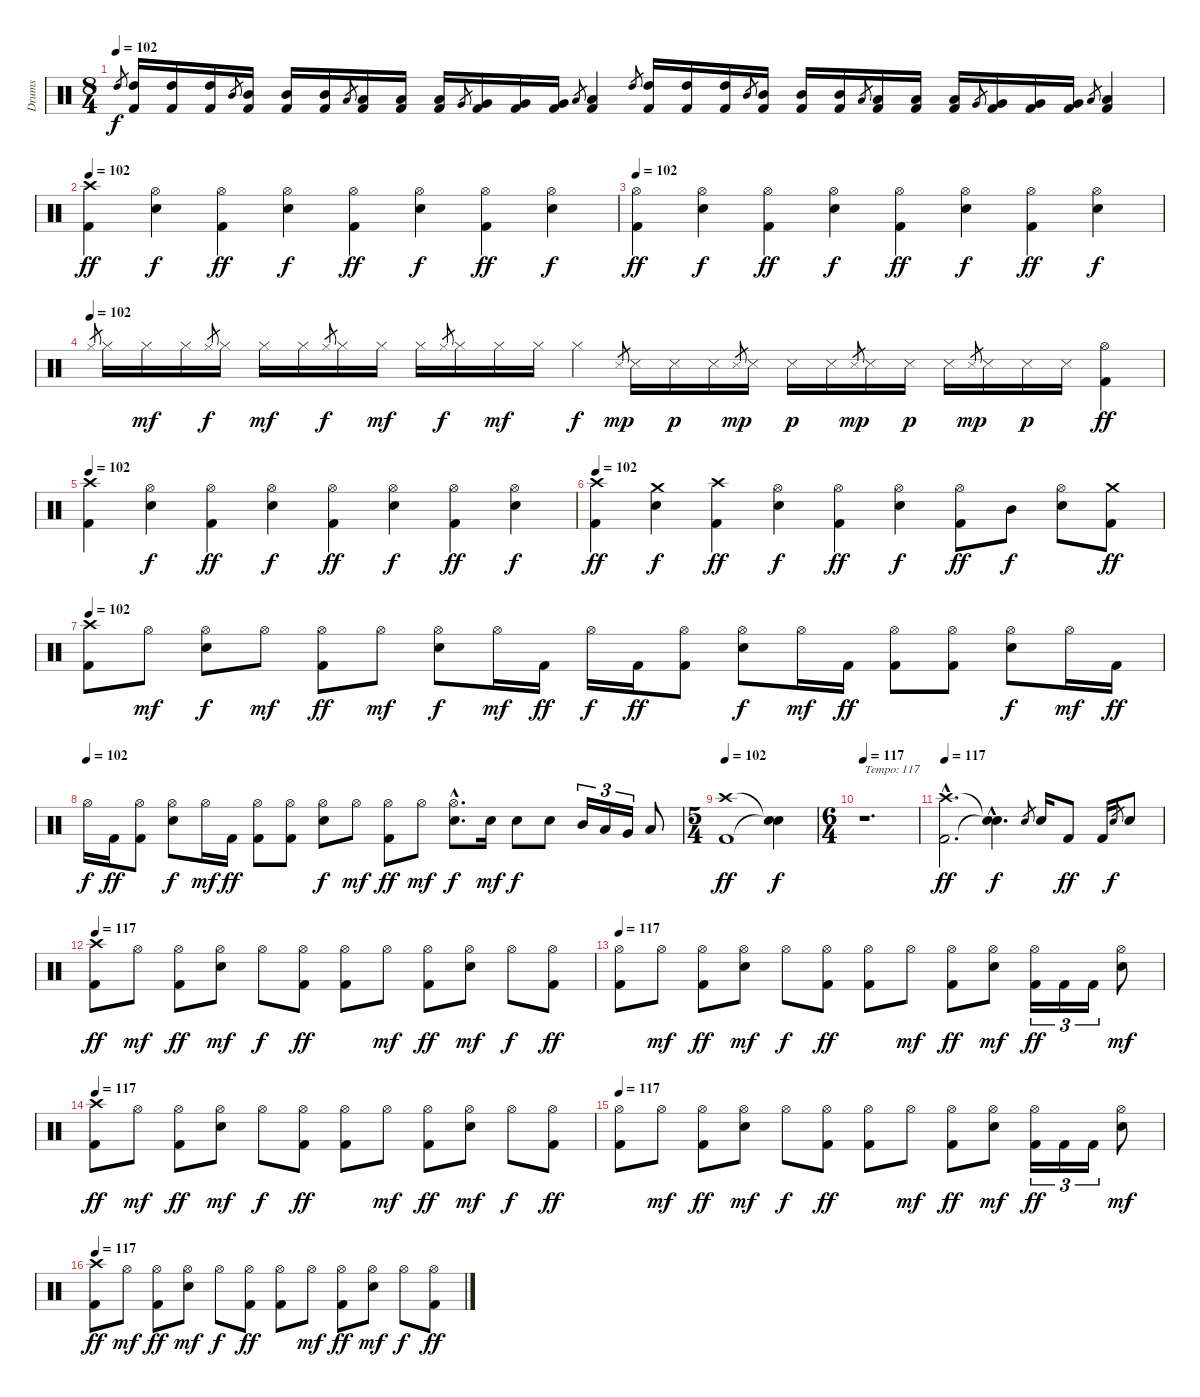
\track ("Drums" "Drums") {instrument percussion}
\staff {score}
\articulation defaults
\ts (8 4)
\tempo 102
\clef neutral
\ks c "High Tom (hit)".8{gr dy f}
("High Tom (hit)" "Kick (hit) 2").16 ("High Tom (hit)" "Kick (hit) 2").16 ("High Tom (hit)" "Kick (hit) 2").16 "Mid Tom (hit)".8{gr} ("Mid Tom (hit)" "Kick (hit) 2").16 ("Mid Tom (hit)" "Kick (hit) 2").16 ("Mid Tom (hit)" "Kick (hit) 2").16 "Low Tom (hit)".8{gr} ("Low Tom (hit)" "Kick (hit) 2").16 ("Low Tom (hit)" "Kick (hit) 2").16 ("Low Tom (hit)" "Kick (hit) 2").16 "Very Low Tom (hit)".8{gr} ("Very Low Tom (hit)" "Kick (hit) 2").16 ("Very Low Tom (hit)" "Kick (hit) 2").16 ("Very Low Tom (hit)" "Kick (hit) 2").16 "Low Floor Tom (hit)".8{gr} ("Low Floor Tom (hit)" "Kick (hit) 2").4 "High Tom (hit)".8{gr} ("High Tom (hit)" "Kick (hit) 2").16 ("High Tom (hit)" "Kick (hit) 2").16 ("High Tom (hit)" "Kick (hit) 2").16 "Mid Tom (hit)".8{gr} ("Mid Tom (hit)" "Kick (hit) 2").16 ("Mid Tom (hit)" "Kick (hit) 2").16 ("Mid Tom (hit)" "Kick (hit) 2").16 "Low Tom (hit)".8{gr} ("Low Tom (hit)" "Kick (hit) 2").16 ("Low Tom (hit)" "Kick (hit) 2").16 ("Low Tom (hit)" "Kick (hit) 2").16 "Very Low Tom (hit)".8{gr} ("Very Low Tom (hit)" "Kick (hit) 2").16 ("Very Low Tom (hit)" "Kick (hit) 2").16 ("Very Low Tom (hit)" "Kick (hit) 2").16 "Low Floor Tom (hit)".8{gr} ("Low Floor Tom (hit)" "Kick (hit) 2").4 |
\tempo 102
("Crash high (hit)" "Kick (hit) 2").4{dy ff} ("Hi-Hat (open)" "Electric Snare (hit)").4{dy f} ("Hi-Hat (open)" "Kick (hit) 2").4{dy ff} ("Hi-Hat (open)" "Electric Snare (hit)").4{dy f} ("Hi-Hat (open)" "Kick (hit) 2").4{dy ff} ("Hi-Hat (open)" "Electric Snare (hit)").4{dy f} ("Hi-Hat (open)" "Kick (hit) 2").4{dy ff} ("Hi-Hat (open)" "Electric Snare (hit)").4{dy f} |
\tempo 102
("Hi-Hat (open)" "Kick (hit) 2").4{dy ff} ("Hi-Hat (open)" "Electric Snare (hit)").4{dy f} ("Hi-Hat (open)" "Kick (hit) 2").4{dy ff} ("Hi-Hat (open)" "Electric Snare (hit)").4{dy f} ("Hi-Hat (open)" "Kick (hit) 2").4{dy ff} ("Hi-Hat (open)" "Electric Snare (hit)").4{dy f} ("Hi-Hat (open)" "Kick (hit) 2").4{dy ff} ("Hi-Hat (open)" "Electric Snare (hit)").4{dy f} |
\tempo (102)
"Hi-Hat (closed)".8{gr} "Hi-Hat (closed)".16 "Hi-Hat (closed)".16{dy mf} "Hi-Hat (closed)".16 "Hi-Hat (closed)".8{gr dy f} "Hi-Hat (closed)".16 "Hi-Hat (closed)".16{dy mf} "Hi-Hat (closed)".16 "Hi-Hat (closed)".8{gr dy f} "Hi-Hat (closed)".16 "Hi-Hat (closed)".16{dy mf} "Hi-Hat (closed)".16 "Hi-Hat (closed)".8{gr dy f} "Hi-Hat (closed)".16 "Hi-Hat (closed)".16{dy mf} "Hi-Hat (closed)".16 "Hi-Hat (closed)".4{dy f} "Snare (side stick) 3".8{gr dy mp} "Snare (side stick) 3".16 "Snare (side stick) 3".16{dy p} "Snare (side stick) 3".16 "Snare (side stick) 3".8{gr dy mp} "Snare (side stick) 3".16 "Snare (side stick) 3".16{dy p} "Snare (side stick) 3".16 "Snare (side stick) 3".8{gr dy mp} "Snare (side stick) 3".16 "Snare (side stick) 3".16{dy p} "Snare (side stick) 3".16 "Snare (side stick) 3".8{gr dy mp} "Snare (side stick) 3".16 "Snare (side stick) 3".16{dy p} "Snare (side stick) 3".16 ("Hi-Hat (open)" "Kick (hit) 2").4{dy ff} |
\tempo 102
("Crash high (hit)" "Kick (hit) 2").4 ("Hi-Hat (open)" "Electric Snare (hit)").4{dy f} ("Hi-Hat (open)" "Kick (hit) 2").4{dy ff} ("Hi-Hat (open)" "Electric Snare (hit)").4{dy f} ("Hi-Hat (open)" "Kick (hit) 2").4{dy ff} ("Hi-Hat (open)" "Electric Snare (hit)").4{dy f} ("Hi-Hat (open)" "Kick (hit) 2").4{dy ff} ("Hi-Hat (open)" "Electric Snare (hit)").4{dy f} |
\tempo 102
("Crash high (hit)" "Kick (hit) 2").4{dy ff} ("Crash medium (hit)" "Electric Snare (hit)").4{dy f} ("Crash high (hit)" "Kick (hit) 2").4{dy ff} ("Hi-Hat (open)" "Electric Snare (hit)").4{dy f} ("Hi-Hat (open)" "Kick (hit) 2").4{dy ff} ("Hi-Hat (open)" "Electric Snare (hit)").4{dy f} ("Hi-Hat (open)" "Kick (hit) 2").8{dy ff} "Mid Tom (hit)".8{dy f} ("Hi-Hat (open)" "Electric Snare (hit)").8 ("Crash medium (hit)" "Kick (hit) 2").8{dy ff} |
\tempo 102
("Crash high (hit)" "Kick (hit) 2").8 "Hi-Hat (open)".8{dy mf} ("Hi-Hat (open)" "Electric Snare (hit)").8{dy f} "Hi-Hat (open)".8{dy mf} ("Hi-Hat (open)" "Kick (hit) 2").8{dy ff} "Hi-Hat (open)".8{dy mf} ("Hi-Hat (open)" "Electric Snare (hit)").8{dy f} "Hi-Hat (open)".16{dy mf} "Kick (hit) 2".16{dy ff} "Hi-Hat (open)".16{dy f} "Kick (hit) 2".16{dy ff} ("Hi-Hat (open)" "Kick (hit) 2").8 ("Hi-Hat (open)" "Electric Snare (hit)").8{dy f} "Hi-Hat (open)".16{dy mf} "Kick (hit) 2".16{dy ff} ("Hi-Hat (open)" "Kick (hit) 2").8 ("Hi-Hat (open)" "Kick (hit) 2").8 ("Hi-Hat (open)" "Electric Snare (hit)").8{dy f} "Hi-Hat (open)".16{dy mf} "Kick (hit) 2".16{dy ff} |
\tempo (102)
"Hi-Hat (open)".16{dy f} "Kick (hit) 2".16{dy ff} ("Hi-Hat (open)" "Kick (hit) 2").8 ("Hi-Hat (open)" "Electric Snare (hit)").8{dy f} "Hi-Hat (open)".16{dy mf} "Kick (hit) 2".16{dy ff} ("Hi-Hat (open)" "Kick (hit) 2").8 ("Hi-Hat (open)" "Kick (hit) 2").8 ("Hi-Hat (open)" "Electric Snare (hit)").8{dy f} "Hi-Hat (open)".8{dy mf} ("Hi-Hat (open)" "Kick (hit) 2").8{dy ff} "Hi-Hat (open)".8{dy mf} ("Hi-Hat (open)"{hac} "Electric Snare (hit)"{hac}).8{d dy f} "Electric Snare (hit)".16{dy mf} "Electric Snare (hit)".8{dy f} "Electric Snare (hit)".8 "Mid Tom (hit)".16{tu (3 2)} "Low Tom (hit)".16{tu (3 2)} "Very Low Tom (hit)".16{tu (3 2)} "Low Floor Tom (hit)".8 |
\ts (5 4)
\tempo 102
("Crash high (hit)" "Kick (hit) 2").1{dy ff} ("Snare (hit)"{t} "Snare (hit)"{t}).4{dy f} |
\ts (6 4)
\tempo 117
r.1{d txt "Tempo: 117"} |
\tempo 117
("Crash high (hit)"{hac} "Kick (hit) 2"{hac}).2{d dy ff} ("Snare (hit)"{hac t} "Snare (hit)"{hac t}).4{d dy f} "Electric Snare (hit)".8{gr} "Electric Snare (hit)".16 "Kick (hit) 2".8{dy ff} "Kick (hit) 2".16 "Electric Snare (hit)".8{gr dy f} "Electric Snare (hit)".8 |
\tempo 117
("Crash high (hit)" "Kick (hit) 2").8{dy ff} "Hi-Hat (open)".8{dy mf} ("Hi-Hat (open)" "Kick (hit) 2").8{dy ff} ("Hi-Hat (open)" "Electric Snare (hit)").8{dy mf} "Hi-Hat (open)".8{dy f} ("Hi-Hat (open)" "Kick (hit) 2").8{dy ff} ("Hi-Hat (open)" "Kick (hit) 2").8 "Hi-Hat (open)".8{dy mf} ("Hi-Hat (open)" "Kick (hit) 2").8{dy ff} ("Hi-Hat (open)" "Electric Snare (hit)").8{dy mf} "Hi-Hat (open)".8{dy f} ("Hi-Hat (open)" "Kick (hit) 2").8{dy ff} |
\tempo 117
("Hi-Hat (open)" "Kick (hit) 2").8 "Hi-Hat (open)".8{dy mf} ("Hi-Hat (open)" "Kick (hit) 2").8{dy ff} ("Hi-Hat (open)" "Electric Snare (hit)").8{dy mf} "Hi-Hat (open)".8{dy f} ("Hi-Hat (open)" "Kick (hit) 2").8{dy ff} ("Hi-Hat (open)" "Kick (hit) 2").8 "Hi-Hat (open)".8{dy mf} ("Hi-Hat (open)" "Kick (hit) 2").8{dy ff} ("Hi-Hat (open)" "Electric Snare (hit)").8{dy mf} ("Hi-Hat (open)" "Kick (hit) 2").16{tu (3 2) dy ff} "Kick (hit) 2".16{tu (3 2)} "Kick (hit) 2".16{tu (3 2)} ("Hi-Hat (open)" "Electric Snare (hit)").8{dy mf} |
\tempo 117
("Crash high (hit)" "Kick (hit) 2").8{dy ff} "Hi-Hat (open)".8{dy mf} ("Hi-Hat (open)" "Kick (hit) 2").8{dy ff} ("Hi-Hat (open)" "Electric Snare (hit)").8{dy mf} "Hi-Hat (open)".8{dy f} ("Hi-Hat (open)" "Kick (hit) 2").8{dy ff} ("Hi-Hat (open)" "Kick (hit) 2").8 "Hi-Hat (open)".8{dy mf} ("Hi-Hat (open)" "Kick (hit) 2").8{dy ff} ("Hi-Hat (open)" "Electric Snare (hit)").8{dy mf} "Hi-Hat (open)".8{dy f} ("Hi-Hat (open)" "Kick (hit) 2").8{dy ff} |
\tempo 117
("Hi-Hat (open)" "Kick (hit) 2").8 "Hi-Hat (open)".8{dy mf} ("Hi-Hat (open)" "Kick (hit) 2").8{dy ff} ("Hi-Hat (open)" "Electric Snare (hit)").8{dy mf} "Hi-Hat (open)".8{dy f} ("Hi-Hat (open)" "Kick (hit) 2").8{dy ff} ("Hi-Hat (open)" "Kick (hit) 2").8 "Hi-Hat (open)".8{dy mf} ("Hi-Hat (open)" "Kick (hit) 2").8{dy ff} ("Hi-Hat (open)" "Electric Snare (hit)").8{dy mf} ("Hi-Hat (open)" "Kick (hit) 2").16{tu (3 2) dy ff} "Kick (hit) 2".16{tu (3 2)} "Kick (hit) 2".16{tu (3 2)} ("Hi-Hat (open)" "Electric Snare (hit)").8{dy mf} |
\tempo 117
("Crash high (hit)" "Kick (hit) 2").8{dy ff} "Hi-Hat (open)".8{dy mf} ("Hi-Hat (open)" "Kick (hit) 2").8{dy ff} ("Hi-Hat (open)" "Electric Snare (hit)").8{dy mf} "Hi-Hat (open)".8{dy f} ("Hi-Hat (open)" "Kick (hit) 2").8{dy ff} ("Hi-Hat (open)" "Kick (hit) 2").8 "Hi-Hat (open)".8{dy mf} ("Hi-Hat (open)" "Kick (hit) 2").8{dy ff} ("Hi-Hat (open)" "Electric Snare (hit)").8{dy mf} "Hi-Hat (open)".8{dy f} ("Hi-Hat (open)" "Kick (hit) 2").8{dy ff}
